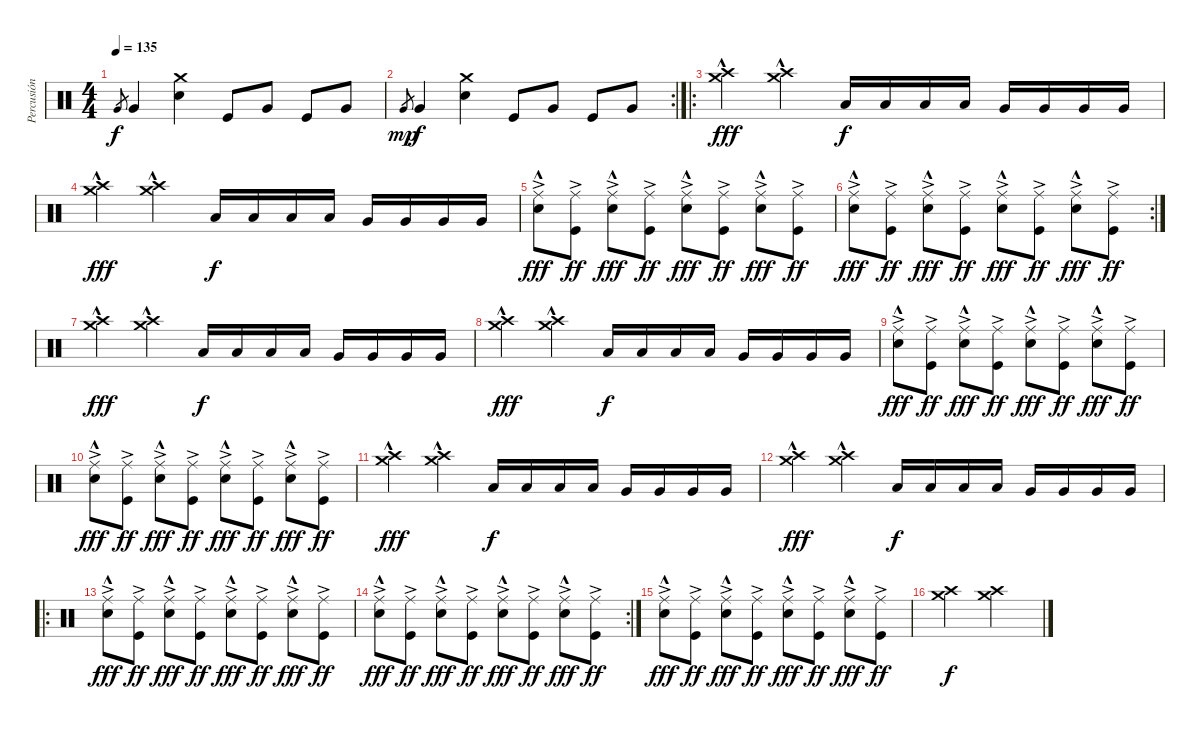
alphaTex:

\track ("Percusión" "Percusión") {instrument percussion}
\staff {score}
\articulation defaults
\ts (4 4)
\tempo 135
\clef neutral
\ks c "Very Low Tom (hit)".8{gr dy f} "Very Low Tom (hit)".4
("Crash medium (hit)" "Electric Snare (hit)").4 "Kick (hit)".8 "Very Low Tom (hit)".8 "Kick (hit)".8 "Very Low Tom (hit)".8 |
\rc 2 "Very Low Tom (hit)".8{gr dy mp} "Very Low Tom (hit)".4{dy f}
("Crash medium (hit)" "Electric Snare (hit)").4 "Kick (hit)".8 "Very Low Tom (hit)".8 "Kick (hit)".8 "Very Low Tom (hit)".8 |
\ro
("Crash high (hit)" "Crash medium (hit)"{hac}).4{dy fff} ("Crash high (hit)" "Crash medium (hit)"{hac}).4 "Low Floor Tom (hit)".16{dy f} "Low Floor Tom (hit)".16 "Low Floor Tom (hit)".16 "Low Floor Tom (hit)".16 "Very Low Tom (hit)".16 "Very Low Tom (hit)".16 "Very Low Tom (hit)".16 "Very Low Tom (hit)".16 |
("Crash high (hit)" "Crash medium (hit)"{hac}).4{dy fff} ("Crash high (hit)" "Crash medium (hit)"{hac}).4 "Low Floor Tom (hit)".16{dy f} "Low Floor Tom (hit)".16 "Low Floor Tom (hit)".16 "Low Floor Tom (hit)".16 "Very Low Tom (hit)".16 "Very Low Tom (hit)".16 "Very Low Tom (hit)".16 "Very Low Tom (hit)".16 |
("Ride (middle)"{ac} "Electric Snare (hit)"{hac}).8{dy fff} ("Ride (middle)"{ac} "Kick (hit)").8{dy ff} ("Ride (middle)"{ac} "Electric Snare (hit)"{hac}).8{dy fff} ("Ride (middle)"{ac} "Kick (hit)").8{dy ff} ("Ride (middle)"{ac} "Electric Snare (hit)"{hac}).8{dy fff} ("Ride (middle)"{ac} "Kick (hit)").8{dy ff} ("Ride (middle)"{ac} "Electric Snare (hit)"{hac}).8{dy fff} ("Ride (middle)"{ac} "Kick (hit)").8{dy ff} |
\rc 2
("Ride (middle)"{ac} "Electric Snare (hit)"{hac}).8{dy fff} ("Ride (middle)"{ac} "Kick (hit)").8{dy ff} ("Ride (middle)"{ac} "Electric Snare (hit)"{hac}).8{dy fff} ("Ride (middle)"{ac} "Kick (hit)").8{dy ff} ("Ride (middle)"{ac} "Electric Snare (hit)"{hac}).8{dy fff} ("Ride (middle)"{ac} "Kick (hit)").8{dy ff} ("Ride (middle)"{ac} "Electric Snare (hit)"{hac}).8{dy fff} ("Ride (middle)"{ac} "Kick (hit)").8{dy ff} |
("Crash high (hit)" "Crash medium (hit)"{hac}).4{dy fff} ("Crash high (hit)" "Crash medium (hit)"{hac}).4 "Low Floor Tom (hit)".16{dy f} "Low Floor Tom (hit)".16 "Low Floor Tom (hit)".16 "Low Floor Tom (hit)".16 "Very Low Tom (hit)".16 "Very Low Tom (hit)".16 "Very Low Tom (hit)".16 "Very Low Tom (hit)".16 |
("Crash high (hit)" "Crash medium (hit)"{hac}).4{dy fff} ("Crash high (hit)" "Crash medium (hit)"{hac}).4 "Low Floor Tom (hit)".16{dy f} "Low Floor Tom (hit)".16 "Low Floor Tom (hit)".16 "Low Floor Tom (hit)".16 "Very Low Tom (hit)".16 "Very Low Tom (hit)".16 "Very Low Tom (hit)".16 "Very Low Tom (hit)".16 |
("Ride (middle)"{ac} "Electric Snare (hit)"{hac}).8{dy fff} ("Ride (middle)"{ac} "Kick (hit)").8{dy ff} ("Ride (middle)"{ac} "Electric Snare (hit)"{hac}).8{dy fff} ("Ride (middle)"{ac} "Kick (hit)").8{dy ff} ("Ride (middle)"{ac} "Electric Snare (hit)"{hac}).8{dy fff} ("Ride (middle)"{ac} "Kick (hit)").8{dy ff} ("Ride (middle)"{ac} "Electric Snare (hit)"{hac}).8{dy fff} ("Ride (middle)"{ac} "Kick (hit)").8{dy ff} |
("Ride (middle)"{ac} "Electric Snare (hit)"{hac}).8{dy fff} ("Ride (middle)"{ac} "Kick (hit)").8{dy ff} ("Ride (middle)"{ac} "Electric Snare (hit)"{hac}).8{dy fff} ("Ride (middle)"{ac} "Kick (hit)").8{dy ff} ("Ride (middle)"{ac} "Electric Snare (hit)"{hac}).8{dy fff} ("Ride (middle)"{ac} "Kick (hit)").8{dy ff} ("Ride (middle)"{ac} "Electric Snare (hit)"{hac}).8{dy fff} ("Ride (middle)"{ac} "Kick (hit)").8{dy ff} |
("Crash high (hit)" "Crash medium (hit)"{hac}).4{dy fff} ("Crash high (hit)" "Crash medium (hit)"{hac}).4 "Low Floor Tom (hit)".16{dy f} "Low Floor Tom (hit)".16 "Low Floor Tom (hit)".16 "Low Floor Tom (hit)".16 "Very Low Tom (hit)".16 "Very Low Tom (hit)".16 "Very Low Tom (hit)".16 "Very Low Tom (hit)".16 |
("Crash high (hit)" "Crash medium (hit)"{hac}).4{dy fff} ("Crash high (hit)" "Crash medium (hit)"{hac}).4 "Low Floor Tom (hit)".16{dy f} "Low Floor Tom (hit)".16 "Low Floor Tom (hit)".16 "Low Floor Tom (hit)".16 "Very Low Tom (hit)".16 "Very Low Tom (hit)".16 "Very Low Tom (hit)".16 "Very Low Tom (hit)".16 |
\ro
("Ride (middle)"{ac} "Electric Snare (hit)"{hac}).8{dy fff} ("Ride (middle)"{ac} "Kick (hit)").8{dy ff} ("Ride (middle)"{ac} "Electric Snare (hit)"{hac}).8{dy fff} ("Ride (middle)"{ac} "Kick (hit)").8{dy ff} ("Ride (middle)"{ac} "Electric Snare (hit)"{hac}).8{dy fff} ("Ride (middle)"{ac} "Kick (hit)").8{dy ff} ("Ride (middle)"{ac} "Electric Snare (hit)"{hac}).8{dy fff} ("Ride (middle)"{ac} "Kick (hit)").8{dy ff} |
\rc 2
("Ride (middle)"{ac} "Electric Snare (hit)"{hac}).8{dy fff} ("Ride (middle)"{ac} "Kick (hit)").8{dy ff} ("Ride (middle)"{ac} "Electric Snare (hit)"{hac}).8{dy fff} ("Ride (middle)"{ac} "Kick (hit)").8{dy ff} ("Ride (middle)"{ac} "Electric Snare (hit)"{hac}).8{dy fff} ("Ride (middle)"{ac} "Kick (hit)").8{dy ff} ("Ride (middle)"{ac} "Electric Snare (hit)"{hac}).8{dy fff} ("Ride (middle)"{ac} "Kick (hit)").8{dy ff} |
("Ride (middle)"{ac} "Electric Snare (hit)"{hac}).8{dy fff} ("Ride (middle)"{ac} "Kick (hit)").8{dy ff} ("Ride (middle)"{ac} "Electric Snare (hit)"{hac}).8{dy fff} ("Ride (middle)"{ac} "Kick (hit)").8{dy ff} ("Ride (middle)"{ac} "Electric Snare (hit)"{hac}).8{dy fff} ("Ride (middle)"{ac} "Kick (hit)").8{dy ff} ("Ride (middle)"{ac} "Electric Snare (hit)"{hac}).8{dy fff} ("Ride (middle)"{ac} "Kick (hit)").8{dy ff} |
("Crash high (hit)" "Crash medium (hit)").2{dy f} ("Crash high (hit)" "Crash medium (hit)").2
